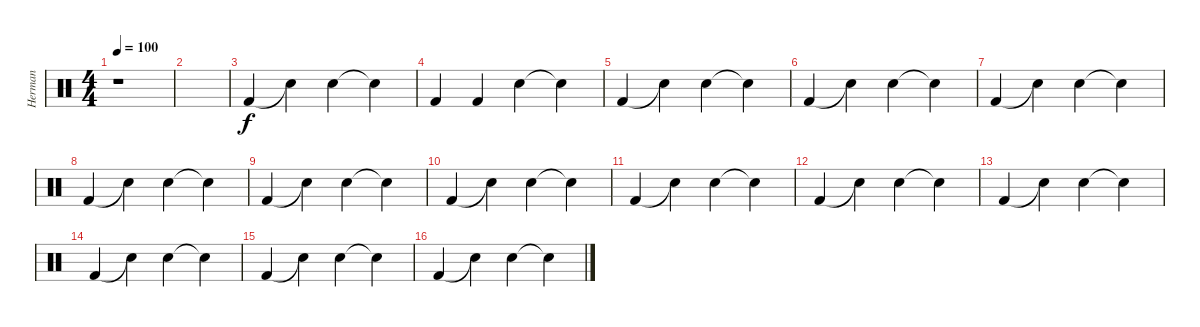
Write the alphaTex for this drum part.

\track ("Herman" "Herman") {instrument percussion}
\staff {score}
\articulation defaults
\ts (4 4)
\tempo 100
\clef neutral
\ks c
r.1{dy f} |
|
"Kick (hit) 2".4 "Snare (hit)"{t}.4 "Snare (hit) 2".4 "Snare (hit)"{t}.4 |
"Kick (hit) 2".4 "Kick (hit) 2".4 "Snare (hit) 2".4 "Snare (hit)"{t}.4 |
"Kick (hit) 2".4 "Snare (hit)"{t}.4 "Snare (hit) 2".4 "Snare (hit)"{t}.4 |
"Kick (hit) 2".4 "Snare (hit)"{t}.4 "Snare (hit) 2".4 "Snare (hit)"{t}.4 |
"Kick (hit) 2".4 "Snare (hit)"{t}.4 "Snare (hit) 2".4 "Snare (hit)"{t}.4 |
"Kick (hit) 2".4 "Snare (hit)"{t}.4 "Snare (hit) 2".4 "Snare (hit)"{t}.4 |
"Kick (hit) 2".4 "Snare (hit)"{t}.4 "Snare (hit) 2".4 "Snare (hit)"{t}.4 |
"Kick (hit) 2".4 "Snare (hit)"{t}.4 "Snare (hit) 2".4 "Snare (hit)"{t}.4 |
"Kick (hit) 2".4 "Snare (hit)"{t}.4 "Snare (hit) 2".4 "Snare (hit)"{t}.4 |
"Kick (hit) 2".4 "Snare (hit)"{t}.4 "Snare (hit) 2".4 "Snare (hit)"{t}.4 |
"Kick (hit) 2".4 "Snare (hit)"{t}.4 "Snare (hit) 2".4 "Snare (hit)"{t}.4 |
"Kick (hit) 2".4 "Snare (hit)"{t}.4 "Snare (hit) 2".4 "Snare (hit)"{t}.4 |
"Kick (hit) 2".4 "Snare (hit)"{t}.4 "Snare (hit) 2".4 "Snare (hit)"{t}.4 |
"Kick (hit) 2".4 "Snare (hit)"{t}.4 "Snare (hit) 2".4 "Snare (hit)"{t}.4
